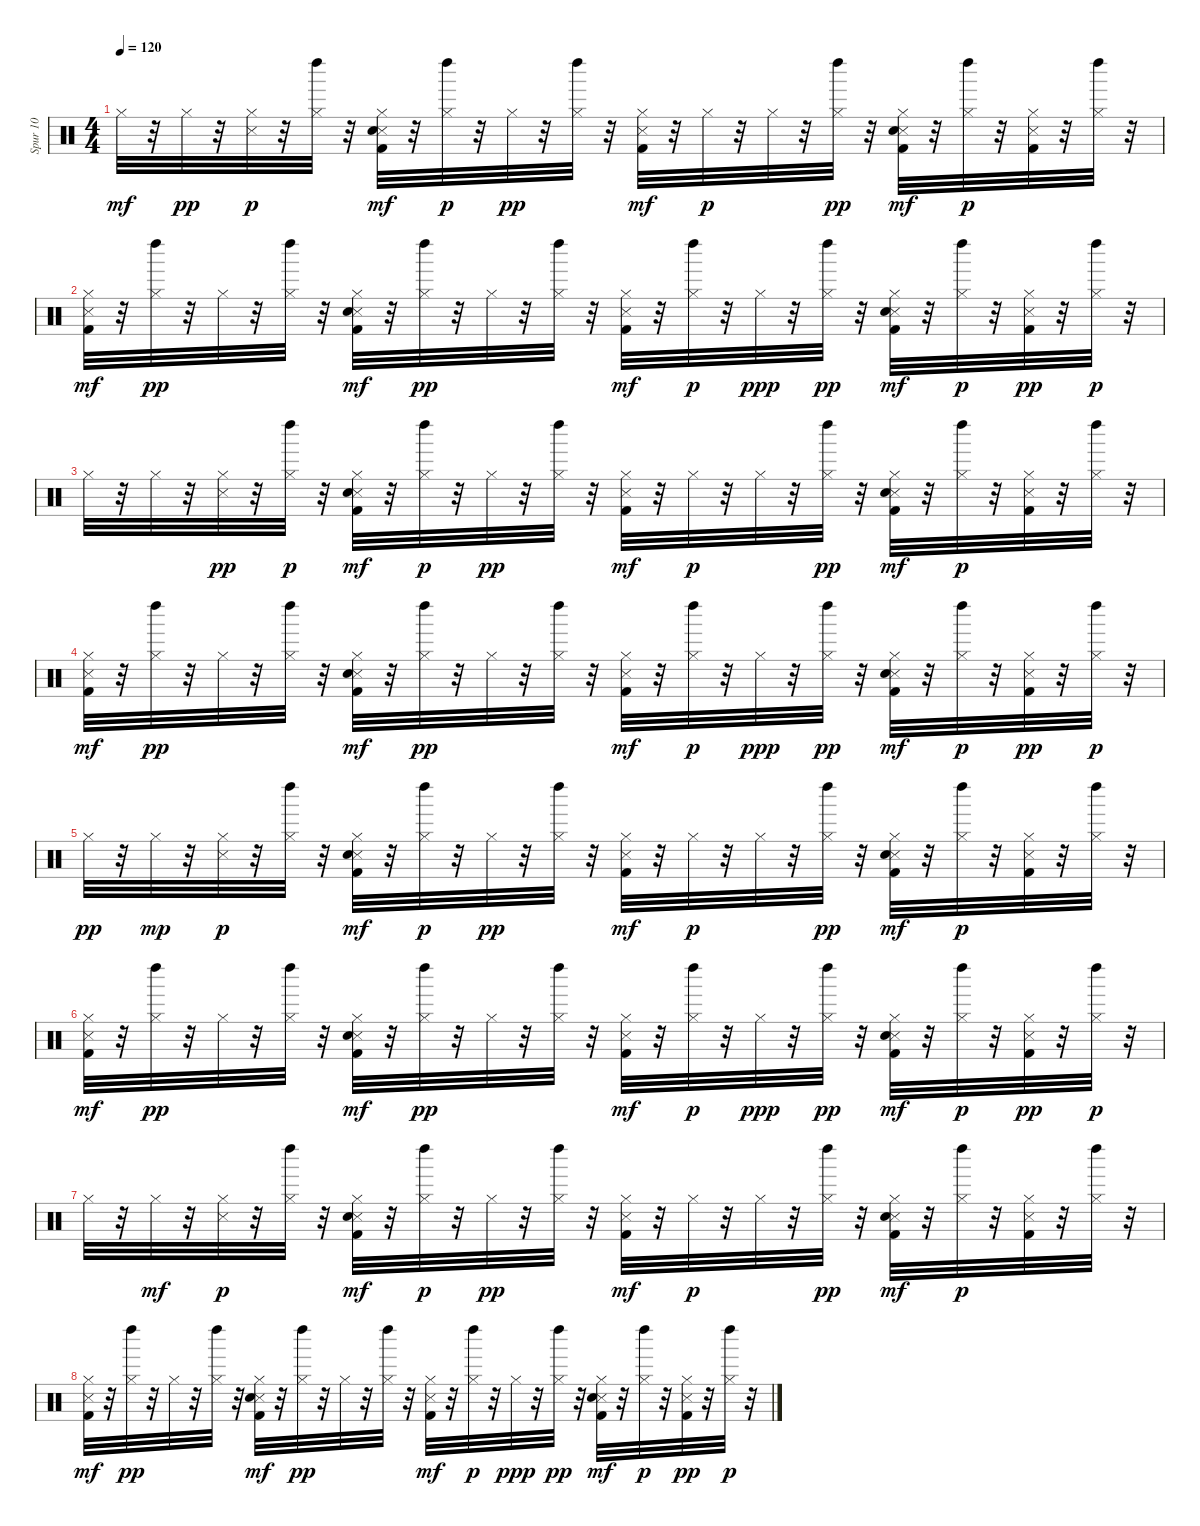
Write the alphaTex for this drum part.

\track ("Spur 10" "Spur 10") {instrument percussion}
\staff {score}
\articulation defaults
\ts (4 4)
\tempo 120
\clef neutral
\ks c "Hi-Hat (closed)".32{dy mf}
r.32 "Hi-Hat (closed)".32{dy pp} r.32 ("Snare (side stick) 3" "Hi-Hat (closed)").32{dy p} r.32 ("Hi-Hat (closed)" "Left Maraca (hit)").32 r.32 ("Kick (hit) 2" "Snare (side stick) 3" "Hand Clap (hit)" "Hi-Hat (closed)").32{dy mf} r.32 ("Hi-Hat (closed)" "Left Maraca (hit)").32{dy p} r.32 "Hi-Hat (closed)".32{dy pp} r.32 ("Hi-Hat (closed)" "Left Maraca (hit)").32 r.32 ("Kick (hit) 2" "Snare (side stick) 3" "Hi-Hat (closed)").32{dy mf} r.32 "Hi-Hat (closed)".32{dy p} r.32 "Hi-Hat (closed)".32 r.32 ("Hi-Hat (closed)" "Left Maraca (hit)").32{dy pp} r.32 ("Kick (hit) 2" "Snare (side stick) 3" "Hand Clap (hit)" "Hi-Hat (closed)").32{dy mf} r.32 ("Hi-Hat (closed)" "Left Maraca (hit)").32{dy p} r.32 ("Kick (hit) 2" "Snare (side stick) 3" "Hi-Hat (closed)").32 r.32 ("Hi-Hat (closed)" "Left Maraca (hit)").32 r.32 |
("Kick (hit) 2" "Snare (side stick) 3" "Hi-Hat (closed)").32{dy mf} r.32 ("Hi-Hat (closed)" "Left Maraca (hit)").32{dy pp} r.32 "Hi-Hat (closed)".32 r.32 ("Hi-Hat (closed)" "Left Maraca (hit)").32 r.32 ("Kick (hit) 2" "Snare (side stick) 3" "Hand Clap (hit)" "Hi-Hat (closed)").32{dy mf} r.32 ("Hi-Hat (closed)" "Left Maraca (hit)").32{dy pp} r.32 "Hi-Hat (closed)".32 r.32 ("Hi-Hat (closed)" "Left Maraca (hit)").32 r.32 ("Kick (hit) 2" "Snare (side stick) 3" "Hi-Hat (closed)").32{dy mf} r.32 ("Hi-Hat (closed)" "Left Maraca (hit)").32{dy p} r.32 "Hi-Hat (closed)".32{dy ppp} r.32 ("Hi-Hat (closed)" "Left Maraca (hit)").32{dy pp} r.32 ("Kick (hit) 2" "Snare (side stick) 3" "Hand Clap (hit)" "Hi-Hat (closed)").32{dy mf} r.32 ("Hi-Hat (closed)" "Left Maraca (hit)").32{dy p} r.32 ("Kick (hit) 2" "Snare (side stick) 3" "Hi-Hat (closed)").32{dy pp} r.32 ("Hi-Hat (closed)" "Left Maraca (hit)").32{dy p} r.32 |
"Hi-Hat (closed)".32 r.32 "Hi-Hat (closed)".32 r.32 ("Snare (side stick) 3" "Hi-Hat (closed)").32{dy pp} r.32 ("Hi-Hat (closed)" "Left Maraca (hit)").32{dy p} r.32 ("Kick (hit) 2" "Snare (side stick) 3" "Hand Clap (hit)" "Hi-Hat (closed)").32{dy mf} r.32 ("Hi-Hat (closed)" "Left Maraca (hit)").32{dy p} r.32 "Hi-Hat (closed)".32{dy pp} r.32 ("Hi-Hat (closed)" "Left Maraca (hit)").32 r.32 ("Kick (hit) 2" "Snare (side stick) 3" "Hi-Hat (closed)").32{dy mf} r.32 "Hi-Hat (closed)".32{dy p} r.32 "Hi-Hat (closed)".32 r.32 ("Hi-Hat (closed)" "Left Maraca (hit)").32{dy pp} r.32 ("Kick (hit) 2" "Snare (side stick) 3" "Hand Clap (hit)" "Hi-Hat (closed)").32{dy mf} r.32 ("Hi-Hat (closed)" "Left Maraca (hit)").32{dy p} r.32 ("Kick (hit) 2" "Snare (side stick) 3" "Hi-Hat (closed)").32 r.32 ("Hi-Hat (closed)" "Left Maraca (hit)").32 r.32 |
("Kick (hit) 2" "Snare (side stick) 3" "Hi-Hat (closed)").32{dy mf} r.32 ("Hi-Hat (closed)" "Left Maraca (hit)").32{dy pp} r.32 "Hi-Hat (closed)".32 r.32 ("Hi-Hat (closed)" "Left Maraca (hit)").32 r.32 ("Kick (hit) 2" "Snare (side stick) 3" "Hand Clap (hit)" "Hi-Hat (closed)").32{dy mf} r.32 ("Hi-Hat (closed)" "Left Maraca (hit)").32{dy pp} r.32 "Hi-Hat (closed)".32 r.32 ("Hi-Hat (closed)" "Left Maraca (hit)").32 r.32 ("Kick (hit) 2" "Snare (side stick) 3" "Hi-Hat (closed)").32{dy mf} r.32 ("Hi-Hat (closed)" "Left Maraca (hit)").32{dy p} r.32 "Hi-Hat (closed)".32{dy ppp} r.32 ("Hi-Hat (closed)" "Left Maraca (hit)").32{dy pp} r.32 ("Kick (hit) 2" "Snare (side stick) 3" "Hand Clap (hit)" "Hi-Hat (closed)").32{dy mf} r.32 ("Hi-Hat (closed)" "Left Maraca (hit)").32{dy p} r.32 ("Kick (hit) 2" "Snare (side stick) 3" "Hi-Hat (closed)").32{dy pp} r.32 ("Hi-Hat (closed)" "Left Maraca (hit)").32{dy p} r.32 |
"Hi-Hat (closed)".32{dy pp} r.32 "Hi-Hat (closed)".32{dy mp} r.32 ("Snare (side stick) 3" "Hi-Hat (closed)").32{dy p} r.32 ("Hi-Hat (closed)" "Left Maraca (hit)").32 r.32 ("Kick (hit) 2" "Snare (side stick) 3" "Hand Clap (hit)" "Hi-Hat (closed)").32{dy mf} r.32 ("Hi-Hat (closed)" "Left Maraca (hit)").32{dy p} r.32 "Hi-Hat (closed)".32{dy pp} r.32 ("Hi-Hat (closed)" "Left Maraca (hit)").32 r.32 ("Kick (hit) 2" "Snare (side stick) 3" "Hi-Hat (closed)").32{dy mf} r.32 "Hi-Hat (closed)".32{dy p} r.32 "Hi-Hat (closed)".32 r.32 ("Hi-Hat (closed)" "Left Maraca (hit)").32{dy pp} r.32 ("Kick (hit) 2" "Snare (side stick) 3" "Hand Clap (hit)" "Hi-Hat (closed)").32{dy mf} r.32 ("Hi-Hat (closed)" "Left Maraca (hit)").32{dy p} r.32 ("Kick (hit) 2" "Snare (side stick) 3" "Hi-Hat (closed)").32 r.32 ("Hi-Hat (closed)" "Left Maraca (hit)").32 r.32 |
("Kick (hit) 2" "Snare (side stick) 3" "Hi-Hat (closed)").32{dy mf} r.32 ("Hi-Hat (closed)" "Left Maraca (hit)").32{dy pp} r.32 "Hi-Hat (closed)".32 r.32 ("Hi-Hat (closed)" "Left Maraca (hit)").32 r.32 ("Kick (hit) 2" "Snare (side stick) 3" "Hand Clap (hit)" "Hi-Hat (closed)").32{dy mf} r.32 ("Hi-Hat (closed)" "Left Maraca (hit)").32{dy pp} r.32 "Hi-Hat (closed)".32 r.32 ("Hi-Hat (closed)" "Left Maraca (hit)").32 r.32 ("Kick (hit) 2" "Snare (side stick) 3" "Hi-Hat (closed)").32{dy mf} r.32 ("Hi-Hat (closed)" "Left Maraca (hit)").32{dy p} r.32 "Hi-Hat (closed)".32{dy ppp} r.32 ("Hi-Hat (closed)" "Left Maraca (hit)").32{dy pp} r.32 ("Kick (hit) 2" "Snare (side stick) 3" "Hand Clap (hit)" "Hi-Hat (closed)").32{dy mf} r.32 ("Hi-Hat (closed)" "Left Maraca (hit)").32{dy p} r.32 ("Kick (hit) 2" "Snare (side stick) 3" "Hi-Hat (closed)").32{dy pp} r.32 ("Hi-Hat (closed)" "Left Maraca (hit)").32{dy p} r.32 |
"Hi-Hat (closed)".32 r.32 "Hi-Hat (closed)".32{dy mf} r.32 ("Snare (side stick) 3" "Hi-Hat (closed)").32{dy p} r.32 ("Hi-Hat (closed)" "Left Maraca (hit)").32 r.32 ("Kick (hit) 2" "Snare (side stick) 3" "Hand Clap (hit)" "Hi-Hat (closed)").32{dy mf} r.32 ("Hi-Hat (closed)" "Left Maraca (hit)").32{dy p} r.32 "Hi-Hat (closed)".32{dy pp} r.32 ("Hi-Hat (closed)" "Left Maraca (hit)").32 r.32 ("Kick (hit) 2" "Snare (side stick) 3" "Hi-Hat (closed)").32{dy mf} r.32 "Hi-Hat (closed)".32{dy p} r.32 "Hi-Hat (closed)".32 r.32 ("Hi-Hat (closed)" "Left Maraca (hit)").32{dy pp} r.32 ("Kick (hit) 2" "Snare (side stick) 3" "Hand Clap (hit)" "Hi-Hat (closed)").32{dy mf} r.32 ("Hi-Hat (closed)" "Left Maraca (hit)").32{dy p} r.32 ("Kick (hit) 2" "Snare (side stick) 3" "Hi-Hat (closed)").32 r.32 ("Hi-Hat (closed)" "Left Maraca (hit)").32 r.32 |
("Kick (hit) 2" "Snare (side stick) 3" "Hi-Hat (closed)").32{dy mf} r.32 ("Hi-Hat (closed)" "Left Maraca (hit)").32{dy pp} r.32 "Hi-Hat (closed)".32 r.32 ("Hi-Hat (closed)" "Left Maraca (hit)").32 r.32 ("Kick (hit) 2" "Snare (side stick) 3" "Hand Clap (hit)" "Hi-Hat (closed)").32{dy mf} r.32 ("Hi-Hat (closed)" "Left Maraca (hit)").32{dy pp} r.32 "Hi-Hat (closed)".32 r.32 ("Hi-Hat (closed)" "Left Maraca (hit)").32 r.32 ("Kick (hit) 2" "Snare (side stick) 3" "Hi-Hat (closed)").32{dy mf} r.32 ("Hi-Hat (closed)" "Left Maraca (hit)").32{dy p} r.32 "Hi-Hat (closed)".32{dy ppp} r.32 ("Hi-Hat (closed)" "Left Maraca (hit)").32{dy pp} r.32 ("Kick (hit) 2" "Snare (side stick) 3" "Hand Clap (hit)" "Hi-Hat (closed)").32{dy mf} r.32 ("Hi-Hat (closed)" "Left Maraca (hit)").32{dy p} r.32 ("Kick (hit) 2" "Snare (side stick) 3" "Hi-Hat (closed)").32{dy pp} r.32 ("Hi-Hat (closed)" "Left Maraca (hit)").32{dy p} r.32
